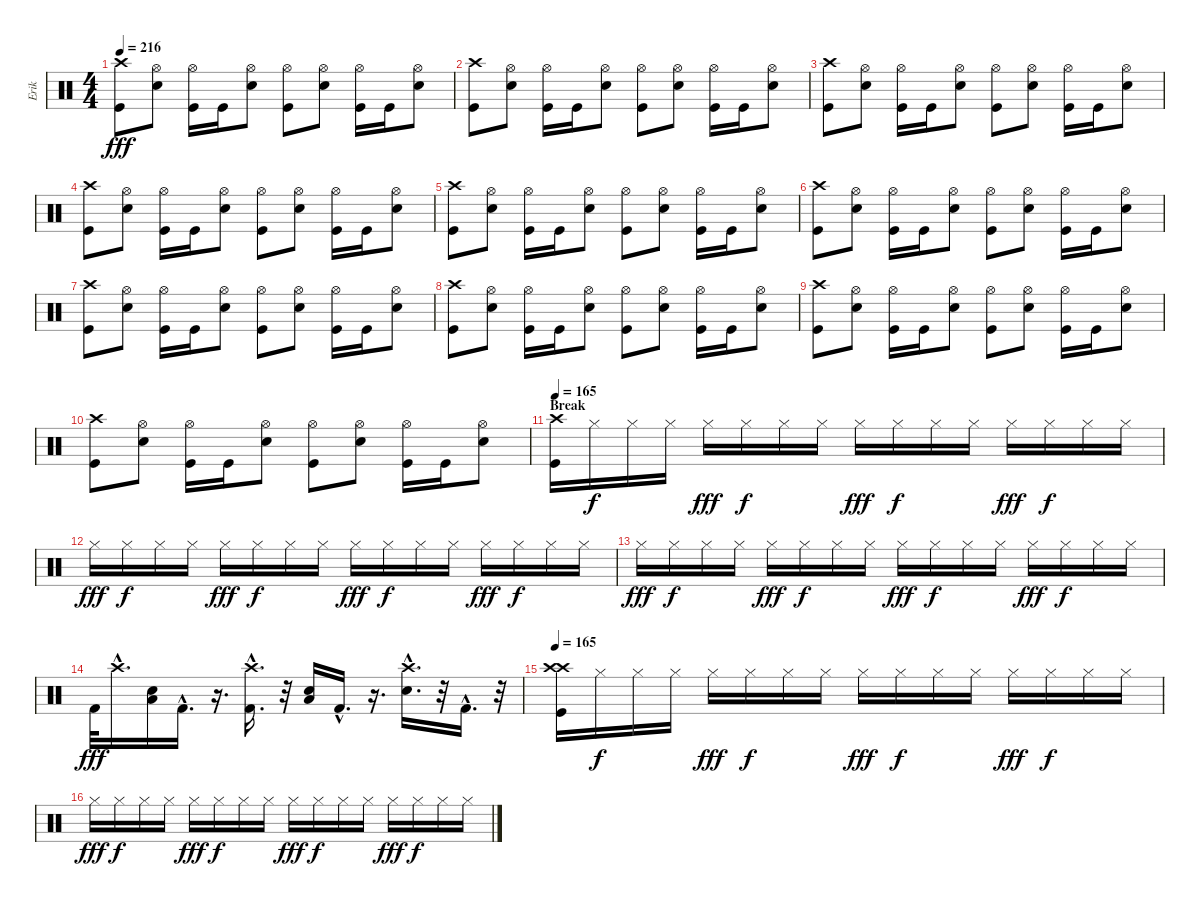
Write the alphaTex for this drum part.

\track ("Erik" "Erik") {instrument percussion}
\staff {score}
\articulation defaults
\ts (4 4)
\tempo 216
\clef neutral
\ks c
("Kick (hit)" "Crash high (hit)").8{dy fff} ("Electric Snare (hit)" "Hi-Hat (open)").8 ("Kick (hit)" "Hi-Hat (open)").16 "Kick (hit)".16 ("Electric Snare (hit)" "Hi-Hat (open)").8 ("Kick (hit)" "Hi-Hat (open)").8 ("Electric Snare (hit)" "Hi-Hat (open)").8 ("Kick (hit)" "Hi-Hat (open)").16 "Kick (hit)".16 ("Electric Snare (hit)" "Hi-Hat (open)").8 |
("Kick (hit)" "Crash high (hit)").8 ("Electric Snare (hit)" "Hi-Hat (open)").8 ("Kick (hit)" "Hi-Hat (open)").16 "Kick (hit)".16 ("Electric Snare (hit)" "Hi-Hat (open)").8 ("Kick (hit)" "Hi-Hat (open)").8 ("Electric Snare (hit)" "Hi-Hat (open)").8 ("Kick (hit)" "Hi-Hat (open)").16 "Kick (hit)".16 ("Electric Snare (hit)" "Hi-Hat (open)").8 |
("Kick (hit)" "Crash high (hit)").8 ("Electric Snare (hit)" "Hi-Hat (open)").8 ("Kick (hit)" "Hi-Hat (open)").16 "Kick (hit)".16 ("Electric Snare (hit)" "Hi-Hat (open)").8 ("Kick (hit)" "Hi-Hat (open)").8 ("Electric Snare (hit)" "Hi-Hat (open)").8 ("Kick (hit)" "Hi-Hat (open)").16 "Kick (hit)".16 ("Electric Snare (hit)" "Hi-Hat (open)").8 |
("Kick (hit)" "Crash high (hit)").8 ("Electric Snare (hit)" "Hi-Hat (open)").8 ("Kick (hit)" "Hi-Hat (open)").16 "Kick (hit)".16 ("Electric Snare (hit)" "Hi-Hat (open)").8 ("Kick (hit)" "Hi-Hat (open)").8 ("Electric Snare (hit)" "Hi-Hat (open)").8 ("Kick (hit)" "Hi-Hat (open)").16 "Kick (hit)".16 ("Electric Snare (hit)" "Hi-Hat (open)").8 |
("Kick (hit)" "Crash high (hit)").8 ("Electric Snare (hit)" "Hi-Hat (open)").8 ("Kick (hit)" "Hi-Hat (open)").16 "Kick (hit)".16 ("Electric Snare (hit)" "Hi-Hat (open)").8 ("Kick (hit)" "Hi-Hat (open)").8 ("Electric Snare (hit)" "Hi-Hat (open)").8 ("Kick (hit)" "Hi-Hat (open)").16 "Kick (hit)".16 ("Electric Snare (hit)" "Hi-Hat (open)").8 |
("Kick (hit)" "Crash high (hit)").8 ("Electric Snare (hit)" "Hi-Hat (open)").8 ("Kick (hit)" "Hi-Hat (open)").16 "Kick (hit)".16 ("Electric Snare (hit)" "Hi-Hat (open)").8 ("Kick (hit)" "Hi-Hat (open)").8 ("Electric Snare (hit)" "Hi-Hat (open)").8 ("Kick (hit)" "Hi-Hat (open)").16 "Kick (hit)".16 ("Electric Snare (hit)" "Hi-Hat (open)").8 |
("Kick (hit)" "Crash high (hit)").8 ("Electric Snare (hit)" "Hi-Hat (open)").8 ("Kick (hit)" "Hi-Hat (open)").16 "Kick (hit)".16 ("Electric Snare (hit)" "Hi-Hat (open)").8 ("Kick (hit)" "Hi-Hat (open)").8 ("Electric Snare (hit)" "Hi-Hat (open)").8 ("Kick (hit)" "Hi-Hat (open)").16 "Kick (hit)".16 ("Electric Snare (hit)" "Hi-Hat (open)").8 |
("Kick (hit)" "Crash high (hit)").8 ("Electric Snare (hit)" "Hi-Hat (open)").8 ("Kick (hit)" "Hi-Hat (open)").16 "Kick (hit)".16 ("Electric Snare (hit)" "Hi-Hat (open)").8 ("Kick (hit)" "Hi-Hat (open)").8 ("Electric Snare (hit)" "Hi-Hat (open)").8 ("Kick (hit)" "Hi-Hat (open)").16 "Kick (hit)".16 ("Electric Snare (hit)" "Hi-Hat (open)").8 |
("Kick (hit)" "Crash high (hit)").8 ("Electric Snare (hit)" "Hi-Hat (open)").8 ("Kick (hit)" "Hi-Hat (open)").16 "Kick (hit)".16 ("Electric Snare (hit)" "Hi-Hat (open)").8 ("Kick (hit)" "Hi-Hat (open)").8 ("Electric Snare (hit)" "Hi-Hat (open)").8 ("Kick (hit)" "Hi-Hat (open)").16 "Kick (hit)".16 ("Electric Snare (hit)" "Hi-Hat (open)").8 |
("Kick (hit)" "Crash high (hit)").8 ("Electric Snare (hit)" "Hi-Hat (open)").8 ("Kick (hit)" "Hi-Hat (open)").16 "Kick (hit)".16 ("Electric Snare (hit)" "Hi-Hat (open)").8 ("Kick (hit)" "Hi-Hat (open)").8 ("Electric Snare (hit)" "Hi-Hat (open)").8 ("Kick (hit)" "Hi-Hat (open)").16 "Kick (hit)".16 ("Electric Snare (hit)" "Hi-Hat (open)").8 |
\section ("" "Break")
\tempo 165
("Crash high (hit)" "Kick (hit)").16 "Hi-Hat (closed)".16{dy f} "Hi-Hat (closed)".16 "Hi-Hat (closed)".16 "Hi-Hat (closed)".16{dy fff} "Hi-Hat (closed)".16{dy f} "Hi-Hat (closed)".16 "Hi-Hat (closed)".16 "Hi-Hat (closed)".16{dy fff} "Hi-Hat (closed)".16{dy f} "Hi-Hat (closed)".16 "Hi-Hat (closed)".16 "Hi-Hat (closed)".16{dy fff} "Hi-Hat (closed)".16{dy f} "Hi-Hat (closed)".16 "Hi-Hat (closed)".16 |
"Hi-Hat (closed)".16{dy fff} "Hi-Hat (closed)".16{dy f} "Hi-Hat (closed)".16 "Hi-Hat (closed)".16 "Hi-Hat (closed)".16{dy fff} "Hi-Hat (closed)".16{dy f} "Hi-Hat (closed)".16 "Hi-Hat (closed)".16 "Hi-Hat (closed)".16{dy fff} "Hi-Hat (closed)".16{dy f} "Hi-Hat (closed)".16 "Hi-Hat (closed)".16 "Hi-Hat (closed)".16{dy fff} "Hi-Hat (closed)".16{dy f} "Hi-Hat (closed)".16 "Hi-Hat (closed)".16 |
"Hi-Hat (closed)".16{dy fff} "Hi-Hat (closed)".16{dy f} "Hi-Hat (closed)".16 "Hi-Hat (closed)".16 "Hi-Hat (closed)".16{dy fff} "Hi-Hat (closed)".16{dy f} "Hi-Hat (closed)".16 "Hi-Hat (closed)".16 "Hi-Hat (closed)".16{dy fff} "Hi-Hat (closed)".16{dy f} "Hi-Hat (closed)".16 "Hi-Hat (closed)".16 "Hi-Hat (closed)".16{dy fff} "Hi-Hat (closed)".16{dy f} "Hi-Hat (closed)".16 "Hi-Hat (closed)".16 |
"Kick (hit) 2".32{dy fff} "Crash high (hit)"{hac}.16{d} ("Low Tom (hit)" "Electric Snare (hit)").16 "Kick (hit) 2"{hac}.16{d} r.16{d} ("Kick (hit) 2"{hac} "Crash high (hit)"{hac}).16{d} r.32 ("Electric Snare (hit)" "Low Tom (hit)").16 "Kick (hit) 2"{hac}.16{d} r.16{d} ("Crash high (hit)"{hac} "Electric Snare (hit)"{hac}).16{d} r.32 "Kick (hit) 2"{hac}.16{d} r.32 |
\tempo 165
("Crash high (hit)" "Kick (hit)" "Crash high (hit)").16 "Hi-Hat (closed)".16{dy f} "Hi-Hat (closed)".16 "Hi-Hat (closed)".16 "Hi-Hat (closed)".16{dy fff} "Hi-Hat (closed)".16{dy f} "Hi-Hat (closed)".16 "Hi-Hat (closed)".16 "Hi-Hat (closed)".16{dy fff} "Hi-Hat (closed)".16{dy f} "Hi-Hat (closed)".16 "Hi-Hat (closed)".16 "Hi-Hat (closed)".16{dy fff} "Hi-Hat (closed)".16{dy f} "Hi-Hat (closed)".16 "Hi-Hat (closed)".16 |
"Hi-Hat (closed)".16{dy fff} "Hi-Hat (closed)".16{dy f} "Hi-Hat (closed)".16 "Hi-Hat (closed)".16 "Hi-Hat (closed)".16{dy fff} "Hi-Hat (closed)".16{dy f} "Hi-Hat (closed)".16 "Hi-Hat (closed)".16 "Hi-Hat (closed)".16{dy fff} "Hi-Hat (closed)".16{dy f} "Hi-Hat (closed)".16 "Hi-Hat (closed)".16 "Hi-Hat (closed)".16{dy fff} "Hi-Hat (closed)".16{dy f} "Hi-Hat (closed)".16 "Hi-Hat (closed)".16
